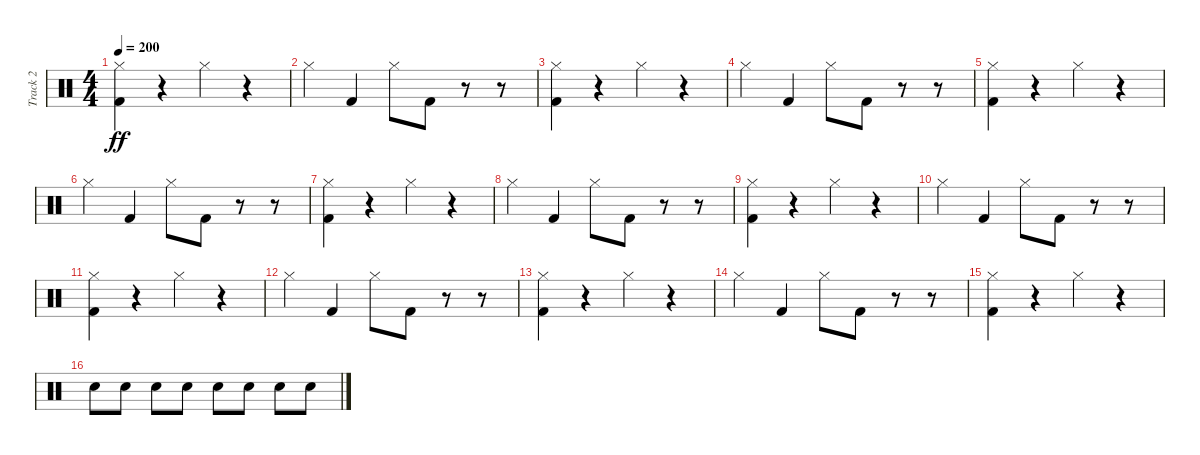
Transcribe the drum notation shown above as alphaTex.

\track ("Track 2" "Track 2") {instrument percussion}
\staff {score}
\articulation defaults
\ts (4 4)
\tempo 200
\clef neutral
\ks c
("Hi-Hat (closed)" "Kick (hit) 2").4{dy ff} r.4 "Hi-Hat (closed)".4 r.4 |
"Hi-Hat (closed)".4 "Kick (hit) 2".4 "Hi-Hat (closed)".8 "Kick (hit) 2".8 r.8 r.8 |
("Hi-Hat (closed)" "Kick (hit) 2").4 r.4 "Hi-Hat (closed)".4 r.4 |
"Hi-Hat (closed)".4 "Kick (hit) 2".4 "Hi-Hat (closed)".8 "Kick (hit) 2".8 r.8 r.8 |
("Hi-Hat (closed)" "Kick (hit) 2").4 r.4 "Hi-Hat (closed)".4 r.4 |
"Hi-Hat (closed)".4 "Kick (hit) 2".4 "Hi-Hat (closed)".8 "Kick (hit) 2".8 r.8 r.8 |
("Hi-Hat (closed)" "Kick (hit) 2").4 r.4 "Hi-Hat (closed)".4 r.4 |
"Hi-Hat (closed)".4 "Kick (hit) 2".4 "Hi-Hat (closed)".8 "Kick (hit) 2".8 r.8 r.8 |
("Hi-Hat (closed)" "Kick (hit) 2").4 r.4 "Hi-Hat (closed)".4 r.4 |
"Hi-Hat (closed)".4 "Kick (hit) 2".4 "Hi-Hat (closed)".8 "Kick (hit) 2".8 r.8 r.8 |
("Hi-Hat (closed)" "Kick (hit) 2").4 r.4 "Hi-Hat (closed)".4 r.4 |
"Hi-Hat (closed)".4 "Kick (hit) 2".4 "Hi-Hat (closed)".8 "Kick (hit) 2".8 r.8 r.8 |
("Hi-Hat (closed)" "Kick (hit) 2").4 r.4 "Hi-Hat (closed)".4 r.4 |
"Hi-Hat (closed)".4 "Kick (hit) 2".4 "Hi-Hat (closed)".8 "Kick (hit) 2".8 r.8 r.8 |
("Hi-Hat (closed)" "Kick (hit) 2").4 r.4 "Hi-Hat (closed)".4 r.4 |
"Snare (hit) 2".8 "Snare (hit) 2".8 "Snare (hit) 2".8 "Snare (hit) 2".8 "Snare (hit) 2".8 "Snare (hit) 2".8 "Snare (hit) 2".8 "Snare (hit) 2".8
